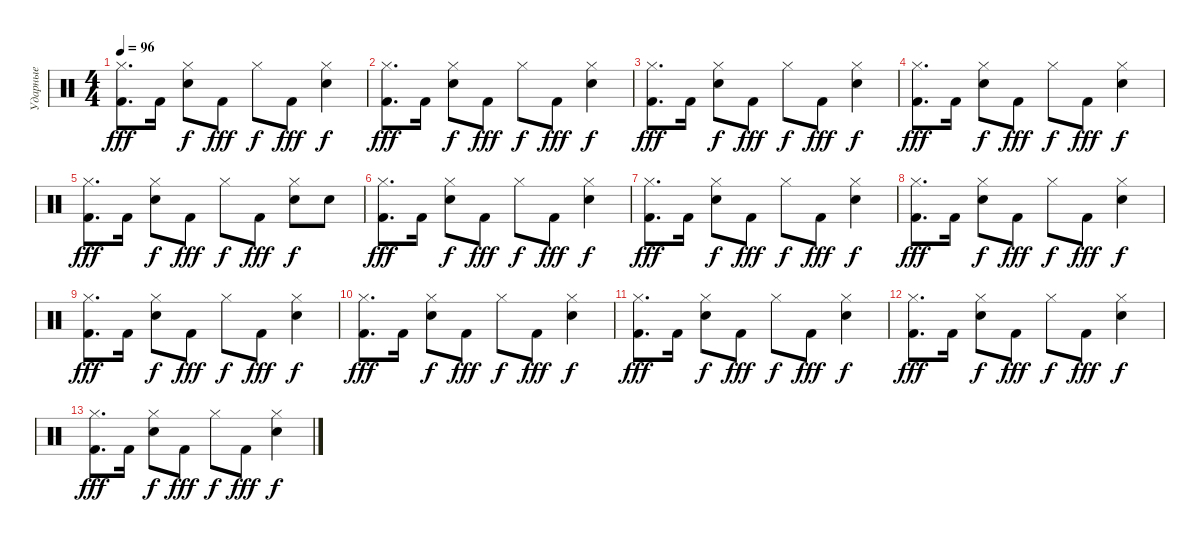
\track ("Ударные" "Ударные") {instrument percussion}
\staff {score}
\articulation defaults
\ts (4 4)
\tempo 96
\clef neutral
\ks aminor
("Hi-Hat (closed)" "Kick (hit) 2").8{d dy fff} "Kick (hit) 2".16 ("Hi-Hat (closed)" "Snare (hit) 2").8{dy f} "Kick (hit) 2".8{dy fff} "Hi-Hat (closed)".8{dy f} "Kick (hit) 2".8{dy fff} ("Hi-Hat (closed)" "Snare (hit) 2").4{dy f} |
("Hi-Hat (closed)" "Kick (hit) 2").8{d dy fff} "Kick (hit) 2".16 ("Hi-Hat (closed)" "Snare (hit) 2").8{dy f} "Kick (hit) 2".8{dy fff} "Hi-Hat (closed)".8{dy f} "Kick (hit) 2".8{dy fff} ("Hi-Hat (closed)" "Snare (hit) 2").4{dy f} |
("Hi-Hat (closed)" "Kick (hit) 2").8{d dy fff} "Kick (hit) 2".16 ("Hi-Hat (closed)" "Snare (hit) 2").8{dy f} "Kick (hit) 2".8{dy fff} "Hi-Hat (closed)".8{dy f} "Kick (hit) 2".8{dy fff} ("Hi-Hat (closed)" "Snare (hit) 2").4{dy f} |
("Hi-Hat (closed)" "Kick (hit) 2").8{d dy fff} "Kick (hit) 2".16 ("Hi-Hat (closed)" "Snare (hit) 2").8{dy f} "Kick (hit) 2".8{dy fff} "Hi-Hat (closed)".8{dy f} "Kick (hit) 2".8{dy fff} ("Hi-Hat (closed)" "Snare (hit) 2").4{dy f} |
("Hi-Hat (closed)" "Kick (hit) 2").8{d dy fff} "Kick (hit) 2".16 ("Hi-Hat (closed)" "Snare (hit) 2").8{dy f} "Kick (hit) 2".8{dy fff} "Hi-Hat (closed)".8{dy f} "Kick (hit) 2".8{dy fff} ("Hi-Hat (closed)" "Snare (hit) 2").8{dy f} "Snare (hit) 2".8 |
("Hi-Hat (closed)" "Kick (hit) 2").8{d dy fff} "Kick (hit) 2".16 ("Hi-Hat (closed)" "Snare (hit) 2").8{dy f} "Kick (hit) 2".8{dy fff} "Hi-Hat (closed)".8{dy f} "Kick (hit) 2".8{dy fff} ("Hi-Hat (closed)" "Snare (hit) 2").4{dy f} |
("Hi-Hat (closed)" "Kick (hit) 2").8{d dy fff} "Kick (hit) 2".16 ("Hi-Hat (closed)" "Snare (hit) 2").8{dy f} "Kick (hit) 2".8{dy fff} "Hi-Hat (closed)".8{dy f} "Kick (hit) 2".8{dy fff} ("Hi-Hat (closed)" "Snare (hit) 2").4{dy f} |
("Hi-Hat (closed)" "Kick (hit) 2").8{d dy fff} "Kick (hit) 2".16 ("Hi-Hat (closed)" "Snare (hit) 2").8{dy f} "Kick (hit) 2".8{dy fff} "Hi-Hat (closed)".8{dy f} "Kick (hit) 2".8{dy fff} ("Hi-Hat (closed)" "Snare (hit) 2").4{dy f} |
("Hi-Hat (closed)" "Kick (hit) 2").8{d dy fff} "Kick (hit) 2".16 ("Hi-Hat (closed)" "Snare (hit) 2").8{dy f} "Kick (hit) 2".8{dy fff} "Hi-Hat (closed)".8{dy f} "Kick (hit) 2".8{dy fff} ("Hi-Hat (closed)" "Snare (hit) 2").4{dy f} |
("Hi-Hat (closed)" "Kick (hit) 2").8{d dy fff} "Kick (hit) 2".16 ("Hi-Hat (closed)" "Snare (hit) 2").8{dy f} "Kick (hit) 2".8{dy fff} "Hi-Hat (closed)".8{dy f} "Kick (hit) 2".8{dy fff} ("Hi-Hat (closed)" "Snare (hit) 2").4{dy f} |
("Hi-Hat (closed)" "Kick (hit) 2").8{d dy fff} "Kick (hit) 2".16 ("Hi-Hat (closed)" "Snare (hit) 2").8{dy f} "Kick (hit) 2".8{dy fff} "Hi-Hat (closed)".8{dy f} "Kick (hit) 2".8{dy fff} ("Hi-Hat (closed)" "Snare (hit) 2").4{dy f} |
("Hi-Hat (closed)" "Kick (hit) 2").8{d dy fff} "Kick (hit) 2".16 ("Hi-Hat (closed)" "Snare (hit) 2").8{dy f} "Kick (hit) 2".8{dy fff} "Hi-Hat (closed)".8{dy f} "Kick (hit) 2".8{dy fff} ("Hi-Hat (closed)" "Snare (hit) 2").4{dy f} |
("Hi-Hat (closed)" "Kick (hit) 2").8{d dy fff} "Kick (hit) 2".16 ("Hi-Hat (closed)" "Snare (hit) 2").8{dy f} "Kick (hit) 2".8{dy fff} "Hi-Hat (closed)".8{dy f} "Kick (hit) 2".8{dy fff} ("Hi-Hat (closed)" "Snare (hit) 2").4{dy f}
